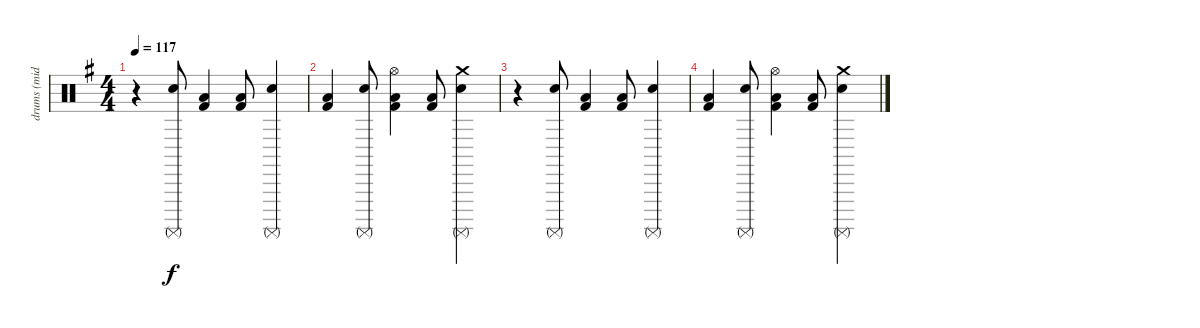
\track ("drums (midi sounds better)" "drums (mid") {instrument percussion}
\staff {score}
\articulation defaults
\ts (4 4)
\tempo 117
\clef neutral
\ks g
r.4{dy f} ("Snare (hit) 2" "Surdo (mute)").8 ("Kick (hit) 2" "Low Floor Tom (hit)").4 ("Kick (hit) 2" "Low Floor Tom (hit)").8 ("Snare (hit) 2" "Surdo (mute)").4 |
("Kick (hit) 2" "Low Floor Tom (hit)").4 ("Snare (hit) 2" "Surdo (mute)").8 ("Kick (hit) 2" "Low Floor Tom (hit)" "Hi-Hat (open)").4 ("Kick (hit) 2" "Low Floor Tom (hit)").8 ("Snare (hit) 2" "Surdo (mute)" "Crash medium (hit)").4 |
r.4 ("Snare (hit) 2" "Surdo (mute)").8 ("Kick (hit) 2" "Low Floor Tom (hit)").4 ("Kick (hit) 2" "Low Floor Tom (hit)").8 ("Snare (hit) 2" "Surdo (mute)").4 |
("Kick (hit) 2" "Low Floor Tom (hit)").4 ("Snare (hit) 2" "Surdo (mute)").8 ("Kick (hit) 2" "Low Floor Tom (hit)" "Hi-Hat (open)").4 ("Kick (hit) 2" "Low Floor Tom (hit)").8 ("Snare (hit) 2" "Surdo (mute)" "Crash medium (hit)").4
